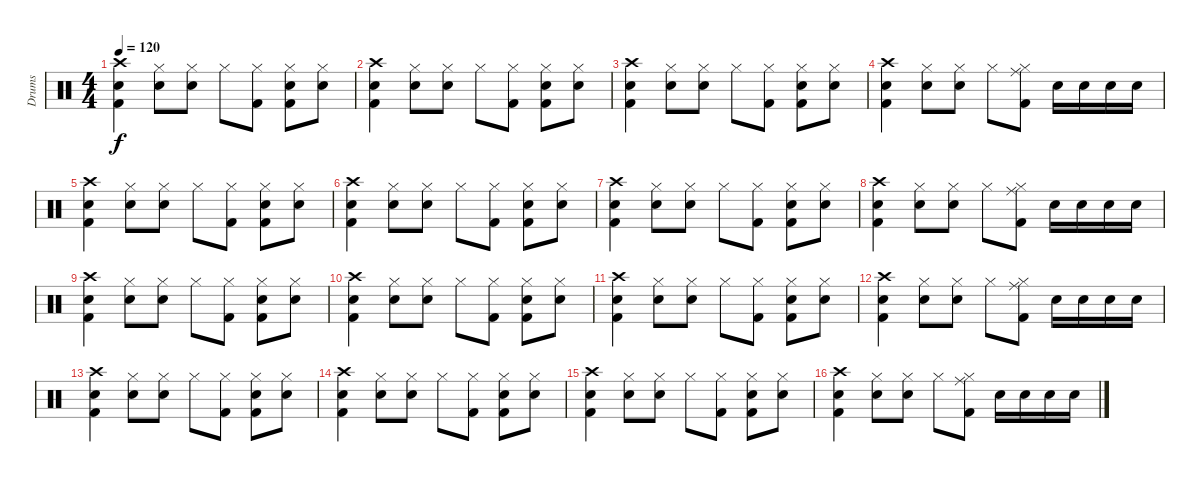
\track ("Drums" "Drums") {instrument percussion}
\staff {score}
\articulation defaults
\ts (4 4)
\tempo 120
\clef neutral
\ks c
("Crash high (hit)" "Kick (hit) 2" "Snare (hit) 2").4{dy f} ("Hi-Hat (closed)" "Snare (hit) 2").8 ("Hi-Hat (closed)" "Snare (hit) 2").8 "Hi-Hat (closed)".8 ("Hi-Hat (closed)" "Kick (hit) 2").8 ("Hi-Hat (closed)" "Kick (hit) 2" "Snare (hit) 2").8 ("Hi-Hat (closed)" "Snare (hit) 2").8 |
("Crash high (hit)" "Kick (hit) 2" "Snare (hit) 2").4 ("Hi-Hat (closed)" "Snare (hit) 2").8 ("Hi-Hat (closed)" "Snare (hit) 2").8 "Hi-Hat (closed)".8 ("Hi-Hat (closed)" "Kick (hit) 2").8 ("Hi-Hat (closed)" "Kick (hit) 2" "Snare (hit) 2").8 ("Hi-Hat (closed)" "Snare (hit) 2").8 |
("Crash high (hit)" "Kick (hit) 2" "Snare (hit) 2").4 ("Hi-Hat (closed)" "Snare (hit) 2").8 ("Hi-Hat (closed)" "Snare (hit) 2").8 "Hi-Hat (closed)".8 ("Hi-Hat (closed)" "Kick (hit) 2").8 ("Hi-Hat (closed)" "Kick (hit) 2" "Snare (hit) 2").8 ("Hi-Hat (closed)" "Snare (hit) 2").8 |
("Crash high (hit)" "Kick (hit) 2" "Snare (hit) 2").4 ("Hi-Hat (closed)" "Snare (hit) 2").8 ("Hi-Hat (closed)" "Snare (hit) 2").8 "Hi-Hat (closed)".8 ("Ride (middle)" "Hi-Hat (closed)" "Kick (hit) 2").8 "Electric Snare (hit)".16 "Electric Snare (hit)".16 "Electric Snare (hit)".16 "Electric Snare (hit)".16 |
("Crash high (hit)" "Kick (hit) 2" "Snare (hit) 2").4 ("Hi-Hat (closed)" "Snare (hit) 2").8 ("Hi-Hat (closed)" "Snare (hit) 2").8 "Hi-Hat (closed)".8 ("Hi-Hat (closed)" "Kick (hit) 2").8 ("Hi-Hat (closed)" "Kick (hit) 2" "Snare (hit) 2").8 ("Hi-Hat (closed)" "Snare (hit) 2").8 |
("Crash high (hit)" "Kick (hit) 2" "Snare (hit) 2").4 ("Hi-Hat (closed)" "Snare (hit) 2").8 ("Hi-Hat (closed)" "Snare (hit) 2").8 "Hi-Hat (closed)".8 ("Hi-Hat (closed)" "Kick (hit) 2").8 ("Hi-Hat (closed)" "Kick (hit) 2" "Snare (hit) 2").8 ("Hi-Hat (closed)" "Snare (hit) 2").8 |
("Crash high (hit)" "Kick (hit) 2" "Snare (hit) 2").4 ("Hi-Hat (closed)" "Snare (hit) 2").8 ("Hi-Hat (closed)" "Snare (hit) 2").8 "Hi-Hat (closed)".8 ("Hi-Hat (closed)" "Kick (hit) 2").8 ("Hi-Hat (closed)" "Kick (hit) 2" "Snare (hit) 2").8 ("Hi-Hat (closed)" "Snare (hit) 2").8 |
("Crash high (hit)" "Kick (hit) 2" "Snare (hit) 2").4 ("Hi-Hat (closed)" "Snare (hit) 2").8 ("Hi-Hat (closed)" "Snare (hit) 2").8 "Hi-Hat (closed)".8 ("Ride (middle)" "Hi-Hat (closed)" "Kick (hit) 2").8 "Electric Snare (hit)".16 "Electric Snare (hit)".16 "Electric Snare (hit)".16 "Electric Snare (hit)".16 |
("Crash high (hit)" "Kick (hit) 2" "Snare (hit) 2").4 ("Hi-Hat (closed)" "Snare (hit) 2").8 ("Hi-Hat (closed)" "Snare (hit) 2").8 "Hi-Hat (closed)".8 ("Hi-Hat (closed)" "Kick (hit) 2").8 ("Hi-Hat (closed)" "Kick (hit) 2" "Snare (hit) 2").8 ("Hi-Hat (closed)" "Snare (hit) 2").8 |
("Crash high (hit)" "Kick (hit) 2" "Snare (hit) 2").4 ("Hi-Hat (closed)" "Snare (hit) 2").8 ("Hi-Hat (closed)" "Snare (hit) 2").8 "Hi-Hat (closed)".8 ("Hi-Hat (closed)" "Kick (hit) 2").8 ("Hi-Hat (closed)" "Kick (hit) 2" "Snare (hit) 2").8 ("Hi-Hat (closed)" "Snare (hit) 2").8 |
("Crash high (hit)" "Kick (hit) 2" "Snare (hit) 2").4 ("Hi-Hat (closed)" "Snare (hit) 2").8 ("Hi-Hat (closed)" "Snare (hit) 2").8 "Hi-Hat (closed)".8 ("Hi-Hat (closed)" "Kick (hit) 2").8 ("Hi-Hat (closed)" "Kick (hit) 2" "Snare (hit) 2").8 ("Hi-Hat (closed)" "Snare (hit) 2").8 |
("Crash high (hit)" "Kick (hit) 2" "Snare (hit) 2").4 ("Hi-Hat (closed)" "Snare (hit) 2").8 ("Hi-Hat (closed)" "Snare (hit) 2").8 "Hi-Hat (closed)".8 ("Ride (middle)" "Hi-Hat (closed)" "Kick (hit) 2").8 "Electric Snare (hit)".16 "Electric Snare (hit)".16 "Electric Snare (hit)".16 "Electric Snare (hit)".16 |
("Crash high (hit)" "Kick (hit) 2" "Snare (hit) 2").4 ("Hi-Hat (closed)" "Snare (hit) 2").8 ("Hi-Hat (closed)" "Snare (hit) 2").8 "Hi-Hat (closed)".8 ("Hi-Hat (closed)" "Kick (hit) 2").8 ("Hi-Hat (closed)" "Kick (hit) 2" "Snare (hit) 2").8 ("Hi-Hat (closed)" "Snare (hit) 2").8 |
("Crash high (hit)" "Kick (hit) 2" "Snare (hit) 2").4 ("Hi-Hat (closed)" "Snare (hit) 2").8 ("Hi-Hat (closed)" "Snare (hit) 2").8 "Hi-Hat (closed)".8 ("Hi-Hat (closed)" "Kick (hit) 2").8 ("Hi-Hat (closed)" "Kick (hit) 2" "Snare (hit) 2").8 ("Hi-Hat (closed)" "Snare (hit) 2").8 |
("Crash high (hit)" "Kick (hit) 2" "Snare (hit) 2").4 ("Hi-Hat (closed)" "Snare (hit) 2").8 ("Hi-Hat (closed)" "Snare (hit) 2").8 "Hi-Hat (closed)".8 ("Hi-Hat (closed)" "Kick (hit) 2").8 ("Hi-Hat (closed)" "Kick (hit) 2" "Snare (hit) 2").8 ("Hi-Hat (closed)" "Snare (hit) 2").8 |
("Crash high (hit)" "Kick (hit) 2" "Snare (hit) 2").4 ("Hi-Hat (closed)" "Snare (hit) 2").8 ("Hi-Hat (closed)" "Snare (hit) 2").8 "Hi-Hat (closed)".8 ("Ride (middle)" "Hi-Hat (closed)" "Kick (hit) 2").8 "Electric Snare (hit)".16 "Electric Snare (hit)".16 "Electric Snare (hit)".16 "Electric Snare (hit)".16
